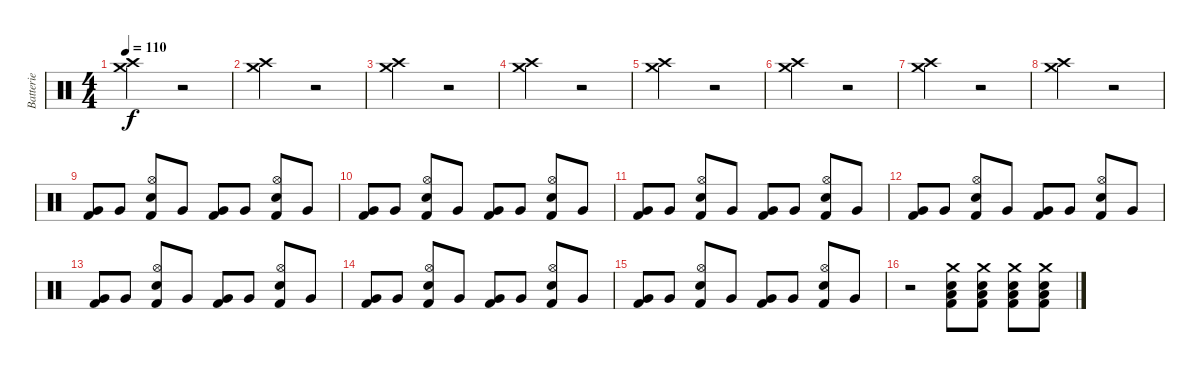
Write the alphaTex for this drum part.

\track ("Batterie" "Batterie") {instrument percussion}
\staff {score}
\articulation defaults
\ts (4 4)
\tempo 110
\clef neutral
\ks c
("Crash high (hit)" "Crash medium (hit)").2{dy f} r.2 |
("Crash high (hit)" "Crash medium (hit)").2 r.2 |
("Crash high (hit)" "Crash medium (hit)").2 r.2 |
("Crash high (hit)" "Crash medium (hit)").2 r.2 |
("Crash high (hit)" "Crash medium (hit)").2 r.2 |
("Crash high (hit)" "Crash medium (hit)").2 r.2 |
("Crash high (hit)" "Crash medium (hit)").2 r.2 |
("Crash high (hit)" "Crash medium (hit)").2 r.2 |
("Very Low Tom (hit)" "Kick (hit) 2").8 "Very Low Tom (hit)".8 ("Hi-Hat (open)" "Snare (hit) 2" "Kick (hit) 2").8 "Very Low Tom (hit)".8 ("Very Low Tom (hit)" "Kick (hit) 2").8 "Very Low Tom (hit)".8 ("Hi-Hat (open)" "Snare (hit) 2" "Kick (hit) 2").8 "Very Low Tom (hit)".8 |
("Very Low Tom (hit)" "Kick (hit) 2").8 "Very Low Tom (hit)".8 ("Hi-Hat (open)" "Snare (hit) 2" "Kick (hit) 2").8 "Very Low Tom (hit)".8 ("Very Low Tom (hit)" "Kick (hit) 2").8 "Very Low Tom (hit)".8 ("Hi-Hat (open)" "Snare (hit) 2" "Kick (hit) 2").8 "Very Low Tom (hit)".8 |
("Very Low Tom (hit)" "Kick (hit) 2").8 "Very Low Tom (hit)".8 ("Hi-Hat (open)" "Snare (hit) 2" "Kick (hit) 2").8 "Very Low Tom (hit)".8 ("Very Low Tom (hit)" "Kick (hit) 2").8 "Very Low Tom (hit)".8 ("Hi-Hat (open)" "Snare (hit) 2" "Kick (hit) 2").8 "Very Low Tom (hit)".8 |
("Very Low Tom (hit)" "Kick (hit) 2").8 "Very Low Tom (hit)".8 ("Hi-Hat (open)" "Snare (hit) 2" "Kick (hit) 2").8 "Very Low Tom (hit)".8 ("Very Low Tom (hit)" "Kick (hit) 2").8 "Very Low Tom (hit)".8 ("Hi-Hat (open)" "Snare (hit) 2" "Kick (hit) 2").8 "Very Low Tom (hit)".8 |
("Very Low Tom (hit)" "Kick (hit) 2").8 "Very Low Tom (hit)".8 ("Hi-Hat (open)" "Snare (hit) 2" "Kick (hit) 2").8 "Very Low Tom (hit)".8 ("Very Low Tom (hit)" "Kick (hit) 2").8 "Very Low Tom (hit)".8 ("Hi-Hat (open)" "Snare (hit) 2" "Kick (hit) 2").8 "Very Low Tom (hit)".8 |
("Very Low Tom (hit)" "Kick (hit) 2").8 "Very Low Tom (hit)".8 ("Hi-Hat (open)" "Snare (hit) 2" "Kick (hit) 2").8 "Very Low Tom (hit)".8 ("Very Low Tom (hit)" "Kick (hit) 2").8 "Very Low Tom (hit)".8 ("Hi-Hat (open)" "Snare (hit) 2" "Kick (hit) 2").8 "Very Low Tom (hit)".8 |
("Very Low Tom (hit)" "Kick (hit) 2").8 "Very Low Tom (hit)".8 ("Hi-Hat (open)" "Snare (hit) 2" "Kick (hit) 2").8 "Very Low Tom (hit)".8 ("Very Low Tom (hit)" "Kick (hit) 2").8 "Very Low Tom (hit)".8 ("Hi-Hat (open)" "Snare (hit) 2" "Kick (hit) 2").8 "Very Low Tom (hit)".8 |
r.2 ("Crash medium (hit)" "Snare (hit) 2" "Low Tom (hit)" "Kick (hit) 2").8 ("Crash medium (hit)" "Snare (hit) 2" "Low Tom (hit)" "Kick (hit) 2").8 ("Crash medium (hit)" "Snare (hit) 2" "Low Tom (hit)" "Kick (hit) 2").8 ("Crash medium (hit)" "Snare (hit) 2" "Low Tom (hit)" "Kick (hit) 2").8
